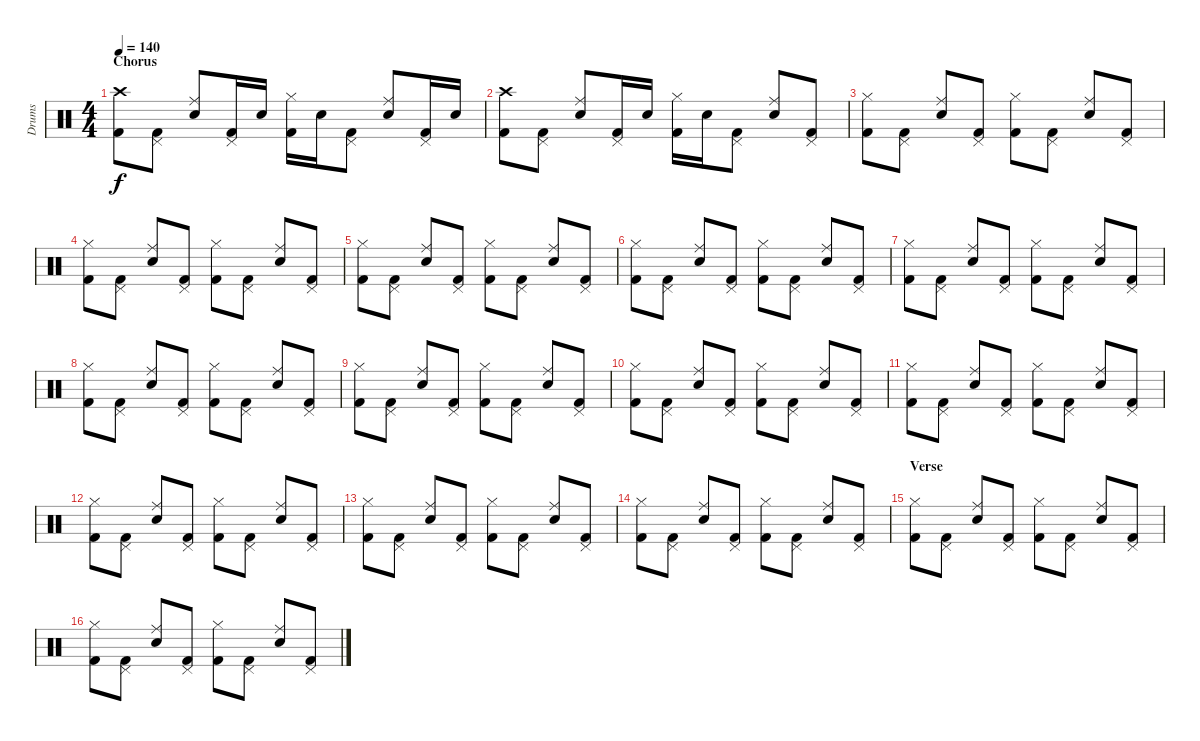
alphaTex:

\track ("Drums" "Drums") {instrument percussion}
\staff {score}
\articulation defaults
\ts (4 4)
\section ("" "Chorus")
\tempo 140
\clef neutral
\ks c
("Kick (hit) 2" "Crash high (hit)").8{dy f} ("Kick (hit) 2" "Pedal Hi-Hat (hit)").8 ("Electric Snare (hit)" "Ride (middle)").8 ("Kick (hit) 2" "Pedal Hi-Hat (hit)").16 "Snare (hit) 2".16 ("Kick (hit) 2" "Hi-Hat (closed)").16 "Snare (hit) 2".16 ("Kick (hit) 2" "Pedal Hi-Hat (hit)").8 ("Electric Snare (hit)" "Ride (middle)").8 ("Kick (hit) 2" "Pedal Hi-Hat (hit)").16 "Electric Snare (hit)".16 |
("Kick (hit) 2" "Crash high (hit)").8 ("Kick (hit) 2" "Pedal Hi-Hat (hit)").8 ("Electric Snare (hit)" "Ride (middle)").8 ("Kick (hit) 2" "Pedal Hi-Hat (hit)").16 "Snare (hit) 2".16 ("Kick (hit) 2" "Hi-Hat (closed)").16 "Snare (hit) 2".16 ("Kick (hit) 2" "Pedal Hi-Hat (hit)").8 ("Electric Snare (hit)" "Ride (middle)").8 ("Kick (hit) 2" "Pedal Hi-Hat (hit)").8 |
("Kick (hit) 2" "Hi-Hat (closed)").8 ("Kick (hit) 2" "Pedal Hi-Hat (hit)").8 ("Electric Snare (hit)" "Ride (middle)").8 ("Kick (hit) 2" "Pedal Hi-Hat (hit)").8 ("Kick (hit) 2" "Hi-Hat (closed)").8 ("Kick (hit) 2" "Pedal Hi-Hat (hit)").8 ("Electric Snare (hit)" "Ride (middle)").8 ("Kick (hit) 2" "Pedal Hi-Hat (hit)").8 |
("Kick (hit) 2" "Hi-Hat (closed)").8 ("Kick (hit) 2" "Pedal Hi-Hat (hit)").8 ("Electric Snare (hit)" "Ride (middle)").8 ("Kick (hit) 2" "Pedal Hi-Hat (hit)").8 ("Kick (hit) 2" "Hi-Hat (closed)").8 ("Kick (hit) 2" "Pedal Hi-Hat (hit)").8 ("Electric Snare (hit)" "Ride (middle)").8 ("Kick (hit) 2" "Pedal Hi-Hat (hit)").8 |
("Kick (hit) 2" "Hi-Hat (closed)").8 ("Kick (hit) 2" "Pedal Hi-Hat (hit)").8 ("Electric Snare (hit)" "Ride (middle)").8 ("Kick (hit) 2" "Pedal Hi-Hat (hit)").8 ("Kick (hit) 2" "Hi-Hat (closed)").8 ("Kick (hit) 2" "Pedal Hi-Hat (hit)").8 ("Electric Snare (hit)" "Ride (middle)").8 ("Kick (hit) 2" "Pedal Hi-Hat (hit)").8 |
("Kick (hit) 2" "Hi-Hat (closed)").8 ("Kick (hit) 2" "Pedal Hi-Hat (hit)").8 ("Electric Snare (hit)" "Ride (middle)").8 ("Kick (hit) 2" "Pedal Hi-Hat (hit)").8 ("Kick (hit) 2" "Hi-Hat (closed)").8 ("Kick (hit) 2" "Pedal Hi-Hat (hit)").8 ("Electric Snare (hit)" "Ride (middle)").8 ("Kick (hit) 2" "Pedal Hi-Hat (hit)").8 |
("Kick (hit) 2" "Hi-Hat (closed)").8 ("Kick (hit) 2" "Pedal Hi-Hat (hit)").8 ("Electric Snare (hit)" "Ride (middle)").8 ("Kick (hit) 2" "Pedal Hi-Hat (hit)").8 ("Kick (hit) 2" "Hi-Hat (closed)").8 ("Kick (hit) 2" "Pedal Hi-Hat (hit)").8 ("Electric Snare (hit)" "Ride (middle)").8 ("Kick (hit) 2" "Pedal Hi-Hat (hit)").8 |
("Kick (hit) 2" "Hi-Hat (closed)").8 ("Kick (hit) 2" "Pedal Hi-Hat (hit)").8 ("Electric Snare (hit)" "Ride (middle)").8 ("Kick (hit) 2" "Pedal Hi-Hat (hit)").8 ("Kick (hit) 2" "Hi-Hat (closed)").8 ("Kick (hit) 2" "Pedal Hi-Hat (hit)").8 ("Electric Snare (hit)" "Ride (middle)").8 ("Kick (hit) 2" "Pedal Hi-Hat (hit)").8 |
("Kick (hit) 2" "Hi-Hat (closed)").8 ("Kick (hit) 2" "Pedal Hi-Hat (hit)").8 ("Electric Snare (hit)" "Ride (middle)").8 ("Kick (hit) 2" "Pedal Hi-Hat (hit)").8 ("Kick (hit) 2" "Hi-Hat (closed)").8 ("Kick (hit) 2" "Pedal Hi-Hat (hit)").8 ("Electric Snare (hit)" "Ride (middle)").8 ("Kick (hit) 2" "Pedal Hi-Hat (hit)").8 |
("Kick (hit) 2" "Hi-Hat (closed)").8 ("Kick (hit) 2" "Pedal Hi-Hat (hit)").8 ("Electric Snare (hit)" "Ride (middle)").8 ("Kick (hit) 2" "Pedal Hi-Hat (hit)").8 ("Kick (hit) 2" "Hi-Hat (closed)").8 ("Kick (hit) 2" "Pedal Hi-Hat (hit)").8 ("Electric Snare (hit)" "Ride (middle)").8 ("Kick (hit) 2" "Pedal Hi-Hat (hit)").8 |
("Kick (hit) 2" "Hi-Hat (closed)").8 ("Kick (hit) 2" "Pedal Hi-Hat (hit)").8 ("Electric Snare (hit)" "Ride (middle)").8 ("Kick (hit) 2" "Pedal Hi-Hat (hit)").8 ("Kick (hit) 2" "Hi-Hat (closed)").8 ("Kick (hit) 2" "Pedal Hi-Hat (hit)").8 ("Electric Snare (hit)" "Ride (middle)").8 ("Kick (hit) 2" "Pedal Hi-Hat (hit)").8 |
("Kick (hit) 2" "Hi-Hat (closed)").8 ("Kick (hit) 2" "Pedal Hi-Hat (hit)").8 ("Electric Snare (hit)" "Ride (middle)").8 ("Kick (hit) 2" "Pedal Hi-Hat (hit)").8 ("Kick (hit) 2" "Hi-Hat (closed)").8 ("Kick (hit) 2" "Pedal Hi-Hat (hit)").8 ("Electric Snare (hit)" "Ride (middle)").8 ("Kick (hit) 2" "Pedal Hi-Hat (hit)").8 |
("Kick (hit) 2" "Hi-Hat (closed)").8 ("Kick (hit) 2" "Pedal Hi-Hat (hit)").8 ("Electric Snare (hit)" "Ride (middle)").8 ("Kick (hit) 2" "Pedal Hi-Hat (hit)").8 ("Kick (hit) 2" "Hi-Hat (closed)").8 ("Kick (hit) 2" "Pedal Hi-Hat (hit)").8 ("Electric Snare (hit)" "Ride (middle)").8 ("Kick (hit) 2" "Pedal Hi-Hat (hit)").8 |
("Kick (hit) 2" "Hi-Hat (closed)").8 ("Kick (hit) 2" "Pedal Hi-Hat (hit)").8 ("Electric Snare (hit)" "Ride (middle)").8 ("Kick (hit) 2" "Pedal Hi-Hat (hit)").8 ("Kick (hit) 2" "Hi-Hat (closed)").8 ("Kick (hit) 2" "Pedal Hi-Hat (hit)").8 ("Electric Snare (hit)" "Ride (middle)").8 ("Kick (hit) 2" "Pedal Hi-Hat (hit)").8 |
\section ("" "Verse")
("Kick (hit) 2" "Hi-Hat (closed)").8 ("Kick (hit) 2" "Pedal Hi-Hat (hit)").8 ("Electric Snare (hit)" "Ride (middle)").8 ("Kick (hit) 2" "Pedal Hi-Hat (hit)").8 ("Kick (hit) 2" "Hi-Hat (closed)").8 ("Kick (hit) 2" "Pedal Hi-Hat (hit)").8 ("Electric Snare (hit)" "Ride (middle)").8 ("Kick (hit) 2" "Pedal Hi-Hat (hit)").8 |
("Kick (hit) 2" "Hi-Hat (closed)").8 ("Kick (hit) 2" "Pedal Hi-Hat (hit)").8 ("Electric Snare (hit)" "Ride (middle)").8 ("Kick (hit) 2" "Pedal Hi-Hat (hit)").8 ("Kick (hit) 2" "Hi-Hat (closed)").8 ("Kick (hit) 2" "Pedal Hi-Hat (hit)").8 ("Electric Snare (hit)" "Ride (middle)").8 ("Kick (hit) 2" "Pedal Hi-Hat (hit)").8
